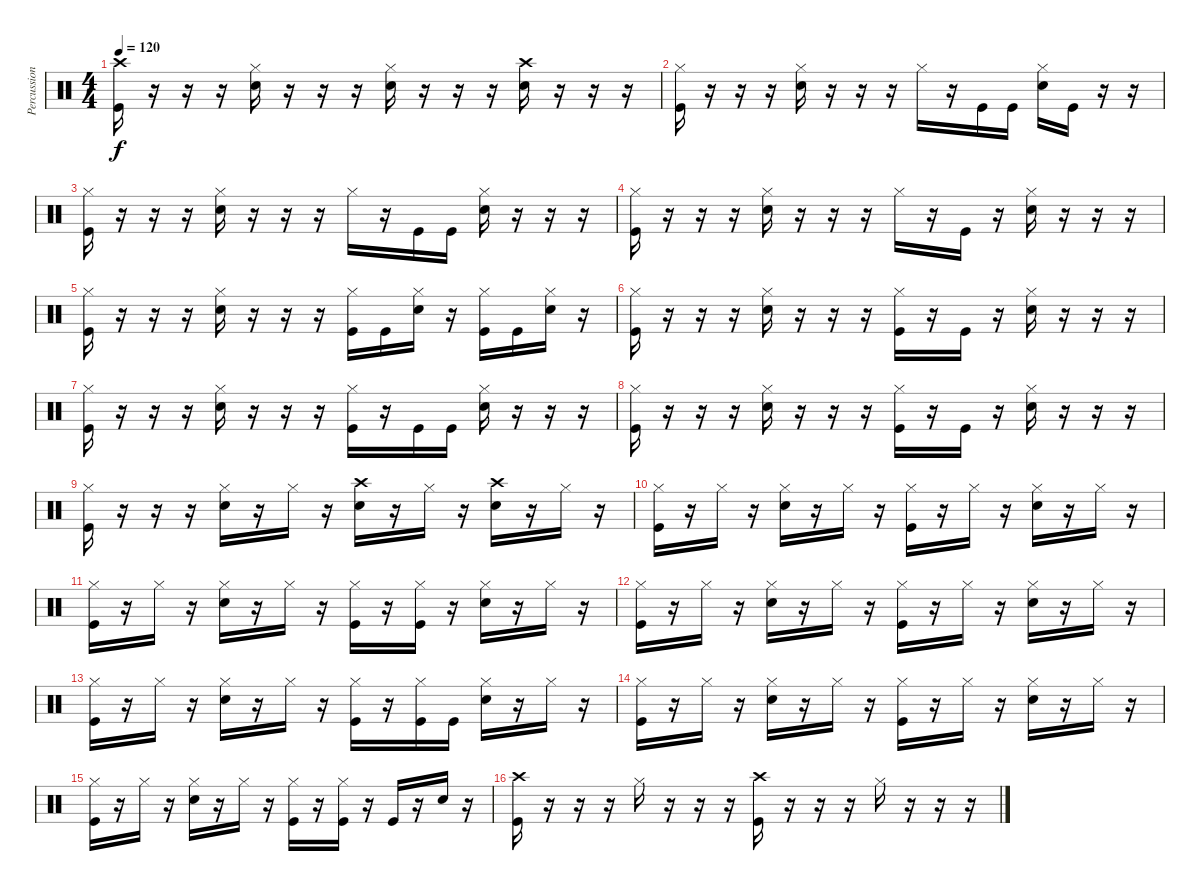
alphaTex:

\track ("Percussion" "Percussion") {instrument percussion}
\staff {score}
\articulation defaults
\ts (4 4)
\tempo 120
\clef neutral
\ks c
("Crash high (hit)" "Kick (hit)").16{dy f} r.16 r.16 r.16 ("Hi-Hat (closed)" "Snare (hit) 2").16 r.16 r.16 r.16 ("Hi-Hat (closed)" "Snare (hit) 2").16 r.16 r.16 r.16 ("Crash high (hit)" "Snare (hit) 2").16 r.16 r.16 r.16 |
("Hi-Hat (closed)" "Kick (hit)").16 r.16 r.16 r.16 ("Hi-Hat (closed)" "Snare (hit) 2").16 r.16 r.16 r.16 "Hi-Hat (closed)".16 r.16 "Kick (hit)".16 "Kick (hit)".16 ("Hi-Hat (closed)" "Snare (hit) 2").16 "Kick (hit)".16 r.16 r.16 |
("Hi-Hat (closed)" "Kick (hit)").16 r.16 r.16 r.16 ("Hi-Hat (closed)" "Snare (hit) 2").16 r.16 r.16 r.16 "Hi-Hat (closed)".16 r.16 "Kick (hit)".16 "Kick (hit)".16 ("Hi-Hat (closed)" "Snare (hit) 2").16 r.16 r.16 r.16 |
("Hi-Hat (closed)" "Kick (hit)").16 r.16 r.16 r.16 ("Hi-Hat (closed)" "Snare (hit) 2").16 r.16 r.16 r.16 "Hi-Hat (closed)".16 r.16 "Kick (hit)".16 r.16 ("Hi-Hat (closed)" "Snare (hit) 2").16 r.16 r.16 r.16 |
("Hi-Hat (closed)" "Kick (hit)").16 r.16 r.16 r.16 ("Hi-Hat (closed)" "Snare (hit) 2").16 r.16 r.16 r.16 ("Hi-Hat (closed)" "Kick (hit)").16 "Kick (hit)".16 ("Hi-Hat (closed)" "Snare (hit) 2").16 r.16 ("Hi-Hat (closed)" "Kick (hit)").16 "Kick (hit)".16 ("Hi-Hat (closed)" "Snare (hit) 2").16 r.16 |
("Hi-Hat (closed)" "Kick (hit)").16 r.16 r.16 r.16 ("Hi-Hat (closed)" "Snare (hit) 2").16 r.16 r.16 r.16 ("Hi-Hat (closed)" "Kick (hit)").16 r.16 "Kick (hit)".16 r.16 ("Hi-Hat (closed)" "Snare (hit) 2").16 r.16 r.16 r.16 |
("Hi-Hat (closed)" "Kick (hit)").16 r.16 r.16 r.16 ("Hi-Hat (closed)" "Snare (hit) 2").16 r.16 r.16 r.16 ("Hi-Hat (closed)" "Kick (hit)").16 r.16 "Kick (hit)".16 "Kick (hit)".16 ("Hi-Hat (closed)" "Snare (hit) 2").16 r.16 r.16 r.16 |
("Hi-Hat (closed)" "Kick (hit)").16 r.16 r.16 r.16 ("Hi-Hat (closed)" "Snare (hit) 2").16 r.16 r.16 r.16 ("Hi-Hat (closed)" "Kick (hit)").16 r.16 "Kick (hit)".16 r.16 ("Hi-Hat (closed)" "Snare (hit) 2").16 r.16 r.16 r.16 |
("Hi-Hat (closed)" "Kick (hit)").16 r.16 r.16 r.16 ("Hi-Hat (closed)" "Snare (hit) 2").16 r.16 "Hi-Hat (closed)".16 r.16 ("Crash high (hit)" "Snare (hit) 2").16 r.16 "Hi-Hat (closed)".16 r.16 ("Crash high (hit)" "Snare (hit) 2").16 r.16 "Hi-Hat (closed)".16 r.16 |
("Hi-Hat (closed)" "Kick (hit)").16 r.16 "Hi-Hat (closed)".16 r.16 ("Hi-Hat (closed)" "Snare (hit) 2").16 r.16 "Hi-Hat (closed)".16 r.16 ("Hi-Hat (closed)" "Kick (hit)").16 r.16 "Hi-Hat (closed)".16 r.16 ("Hi-Hat (closed)" "Snare (hit) 2").16 r.16 "Hi-Hat (closed)".16 r.16 |
("Hi-Hat (closed)" "Kick (hit)").16 r.16 "Hi-Hat (closed)".16 r.16 ("Hi-Hat (closed)" "Snare (hit) 2").16 r.16 "Hi-Hat (closed)".16 r.16 ("Hi-Hat (closed)" "Kick (hit)").16 r.16 ("Hi-Hat (closed)" "Kick (hit)").16 r.16 ("Hi-Hat (closed)" "Snare (hit) 2").16 r.16 "Hi-Hat (closed)".16 r.16 |
("Hi-Hat (closed)" "Kick (hit)").16 r.16 "Hi-Hat (closed)".16 r.16 ("Hi-Hat (closed)" "Snare (hit) 2").16 r.16 "Hi-Hat (closed)".16 r.16 ("Hi-Hat (closed)" "Kick (hit)").16 r.16 "Hi-Hat (closed)".16 r.16 ("Hi-Hat (closed)" "Snare (hit) 2").16 r.16 "Hi-Hat (closed)".16 r.16 |
("Hi-Hat (closed)" "Kick (hit)").16 r.16 "Hi-Hat (closed)".16 r.16 ("Hi-Hat (closed)" "Snare (hit) 2").16 r.16 "Hi-Hat (closed)".16 r.16 ("Hi-Hat (closed)" "Kick (hit)").16 r.16 ("Hi-Hat (closed)" "Kick (hit)").16 "Kick (hit)".16 ("Hi-Hat (closed)" "Snare (hit) 2").16 r.16 "Hi-Hat (closed)".16 r.16 |
("Hi-Hat (closed)" "Kick (hit)").16 r.16 "Hi-Hat (closed)".16 r.16 ("Hi-Hat (closed)" "Snare (hit) 2").16 r.16 "Hi-Hat (closed)".16 r.16 ("Hi-Hat (closed)" "Kick (hit)").16 r.16 "Hi-Hat (closed)".16 r.16 ("Hi-Hat (closed)" "Snare (hit) 2").16 r.16 "Hi-Hat (closed)".16 r.16 |
("Hi-Hat (closed)" "Kick (hit)").16 r.16 "Hi-Hat (closed)".16 r.16 ("Hi-Hat (closed)" "Snare (hit) 2").16 r.16 "Hi-Hat (closed)".16 r.16 ("Hi-Hat (closed)" "Kick (hit)").16 r.16 ("Hi-Hat (closed)" "Kick (hit)").16 r.16 "Kick (hit)".16 r.16 "Snare (hit) 2".16 r.16 |
("Crash high (hit)" "Kick (hit)").16 r.16 r.16 r.16 "Hi-Hat (closed)".16 r.16 r.16 r.16 ("Crash high (hit)" "Kick (hit)").16 r.16 r.16 r.16 "Hi-Hat (closed)".16 r.16 r.16 r.16
